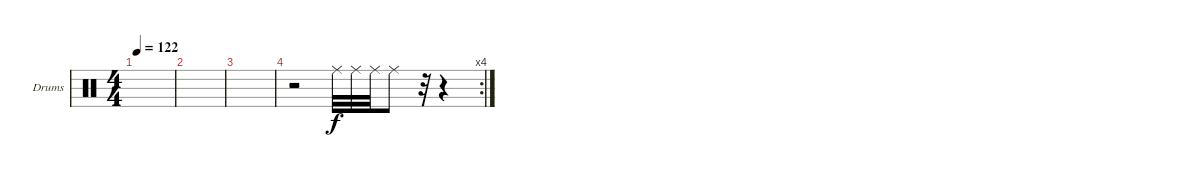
\defaultSystemsLayout 4
\bracketExtendMode groupsimilarinstruments
\firstSystemTrackNameOrientation horizontal
\otherSystemsTrackNameOrientation horizontal
\track ("Drumkit" "Drums") {instrument percussion}
\staff {score}
\articulation defaults
\ts (4 4)
\tempo 122
\clef neutral
\scale
0.333333
\ks c
|
\scale
0.333333 |
\scale
0.333333 |
\rc 4
\scale
0.333333 r.2 "Ride (middle)".32 "Ride (middle)".32 "Ride (middle)".32 "Ride (middle)".8 r.32 r.4
